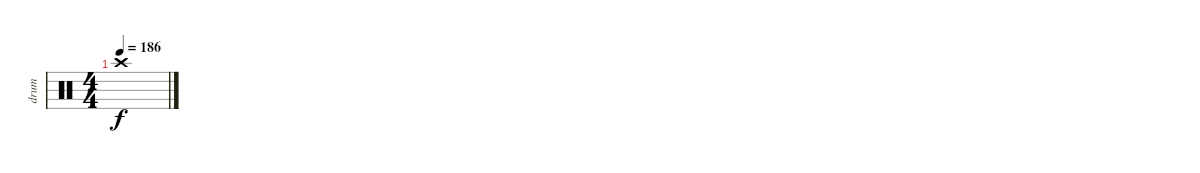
\track ("drum" "drum") {instrument percussion}
\staff {score}
\articulation defaults
\ts (4 4)
\tempo 186
\clef neutral
\ks c "Crash high (hit)".1{dy f}
